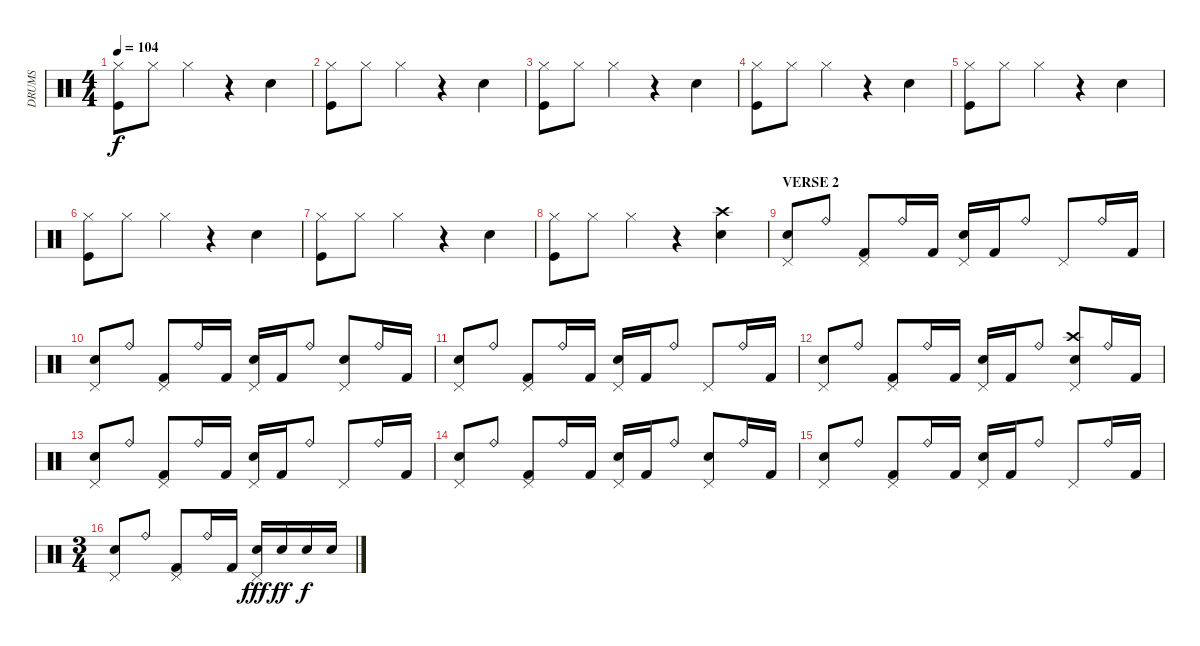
\track ("DRUMS" "DRUMS") {instrument percussion}
\staff {score}
\articulation defaults
\ts (4 4)
\tempo 104
\clef neutral
\ks c
("Hi-Hat (closed)" "Kick (hit)").8{dy f} "Hi-Hat (closed)".8 "Hi-Hat (closed)".4 r.4 "Snare (hit) 2".4 |
("Hi-Hat (closed)" "Kick (hit)").8 "Hi-Hat (closed)".8 "Hi-Hat (closed)".4 r.4 "Snare (hit) 2".4 |
("Hi-Hat (closed)" "Kick (hit)").8 "Hi-Hat (closed)".8 "Hi-Hat (closed)".4 r.4 "Snare (hit) 2".4 |
("Hi-Hat (closed)" "Kick (hit)").8 "Hi-Hat (closed)".8 "Hi-Hat (closed)".4 r.4 "Snare (hit) 2".4 |
("Hi-Hat (closed)" "Kick (hit)").8 "Hi-Hat (closed)".8 "Hi-Hat (closed)".4 r.4 "Snare (hit) 2".4 |
("Hi-Hat (closed)" "Kick (hit)").8 "Hi-Hat (closed)".8 "Hi-Hat (closed)".4 r.4 "Snare (hit) 2".4 |
("Hi-Hat (closed)" "Kick (hit)").8 "Hi-Hat (closed)".8 "Hi-Hat (closed)".4 r.4 "Snare (hit) 2".4 |
("Hi-Hat (closed)" "Kick (hit)").8 "Hi-Hat (closed)".8 "Hi-Hat (closed)".4 r.4 ("Crash high (hit)" "Snare (hit) 2").4 |
\section ("" "VERSE 2")
("Electric Snare (hit)" "Pedal Hi-Hat (hit)").8 "Ride (bell)".8 ("Pedal Hi-Hat (hit)" "Kick (hit) 2").8 "Ride (bell)".16 "Kick (hit) 2".16 ("Electric Snare (hit)" "Pedal Hi-Hat (hit)").16 "Kick (hit) 2".16 "Ride (bell)".8 "Pedal Hi-Hat (hit)".8 "Ride (bell)".16 "Kick (hit) 2".16 |
("Electric Snare (hit)" "Pedal Hi-Hat (hit)").8 "Ride (bell)".8 ("Pedal Hi-Hat (hit)" "Kick (hit) 2").8 "Ride (bell)".16 "Kick (hit) 2".16 ("Electric Snare (hit)" "Pedal Hi-Hat (hit)").16 "Kick (hit) 2".16 "Ride (bell)".8 ("Snare (hit) 2" "Pedal Hi-Hat (hit)").8 "Ride (bell)".16 "Kick (hit) 2".16 |
("Electric Snare (hit)" "Pedal Hi-Hat (hit)").8 "Ride (bell)".8 ("Pedal Hi-Hat (hit)" "Kick (hit) 2").8 "Ride (bell)".16 "Kick (hit) 2".16 ("Electric Snare (hit)" "Pedal Hi-Hat (hit)").16 "Kick (hit) 2".16 "Ride (bell)".8 "Pedal Hi-Hat (hit)".8 "Ride (bell)".16 "Kick (hit) 2".16 |
("Electric Snare (hit)" "Pedal Hi-Hat (hit)").8 "Ride (bell)".8 ("Pedal Hi-Hat (hit)" "Kick (hit) 2").8 "Ride (bell)".16 "Kick (hit) 2".16 ("Electric Snare (hit)" "Pedal Hi-Hat (hit)").16 "Kick (hit) 2".16 "Ride (bell)".8 ("Crash high (hit)" "Snare (hit) 2" "Pedal Hi-Hat (hit)").8 "Ride (bell)".16 "Kick (hit) 2".16 |
("Electric Snare (hit)" "Pedal Hi-Hat (hit)").8 "Ride (bell)".8 ("Pedal Hi-Hat (hit)" "Kick (hit) 2").8 "Ride (bell)".16 "Kick (hit) 2".16 ("Electric Snare (hit)" "Pedal Hi-Hat (hit)").16 "Kick (hit) 2".16 "Ride (bell)".8 "Pedal Hi-Hat (hit)".8 "Ride (bell)".16 "Kick (hit) 2".16 |
("Electric Snare (hit)" "Pedal Hi-Hat (hit)").8 "Ride (bell)".8 ("Pedal Hi-Hat (hit)" "Kick (hit) 2").8 "Ride (bell)".16 "Kick (hit) 2".16 ("Electric Snare (hit)" "Pedal Hi-Hat (hit)").16 "Kick (hit) 2".16 "Ride (bell)".8 ("Snare (hit) 2" "Pedal Hi-Hat (hit)").8 "Ride (bell)".16 "Kick (hit) 2".16 |
("Electric Snare (hit)" "Pedal Hi-Hat (hit)").8 "Ride (bell)".8 ("Pedal Hi-Hat (hit)" "Kick (hit) 2").8 "Ride (bell)".16 "Kick (hit) 2".16 ("Electric Snare (hit)" "Pedal Hi-Hat (hit)").16 "Kick (hit) 2".16 "Ride (bell)".8 "Pedal Hi-Hat (hit)".8 "Ride (bell)".16 "Kick (hit) 2".16 |
\ts (3 4)
("Electric Snare (hit)" "Pedal Hi-Hat (hit)").8 "Ride (bell)".8 ("Pedal Hi-Hat (hit)" "Kick (hit) 2").8 "Ride (bell)".16 "Kick (hit) 2".16 ("Electric Snare (hit)" "Pedal Hi-Hat (hit)").16{dy fff} "Electric Snare (hit)".16{dy ff} "Electric Snare (hit)".16{dy f} "Electric Snare (hit)".16
